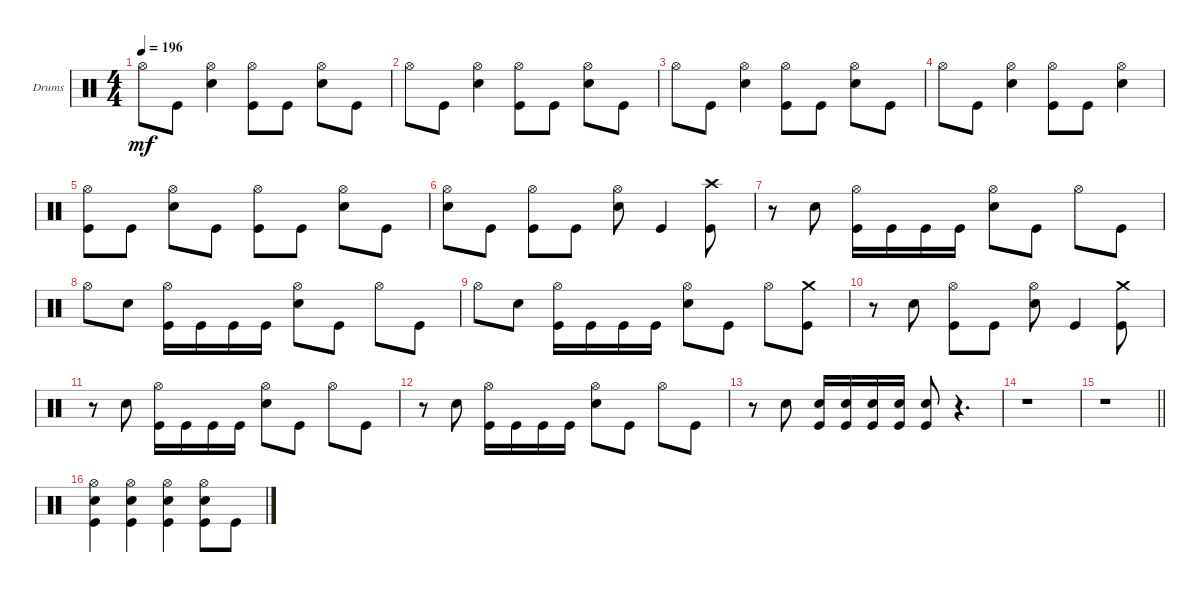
\defaultSystemsLayout 4
\bracketExtendMode groupsimilarinstruments
\firstSystemTrackNameOrientation horizontal
\otherSystemsTrackNameOrientation horizontal
\track ("Drumkit" "Drums") {instrument percussion}
\staff {score}
\articulation defaults
\ts (4 4)
\tempo 196
\clef neutral
\scale
0.333333
\ks c "Hi-Hat (open)".8{dy mf} "Kick (hit)".8
("Snare (hit) 2" "Hi-Hat (open)").4 ("Kick (hit)" "Hi-Hat (open)").8 "Kick (hit)".8 ("Snare (hit) 2" "Hi-Hat (open)").8 "Kick (hit)".8 |
\scale
0.333333 "Hi-Hat (open)".8 "Kick (hit)".8 ("Snare (hit) 2" "Hi-Hat (open)").4 ("Kick (hit)" "Hi-Hat (open)").8 "Kick (hit)".8 ("Snare (hit) 2" "Hi-Hat (open)").8 "Kick (hit)".8 |
\scale
0.333333 "Hi-Hat (open)".8 "Kick (hit)".8 ("Snare (hit) 2" "Hi-Hat (open)").4 ("Kick (hit)" "Hi-Hat (open)").8 "Kick (hit)".8 ("Snare (hit) 2" "Hi-Hat (open)").8 "Kick (hit)".8 |
\scale
0.333333 "Hi-Hat (open)".8 "Kick (hit)".8 ("Snare (hit) 2" "Hi-Hat (open)").4 ("Kick (hit)" "Hi-Hat (open)").8 "Kick (hit)".8 ("Snare (hit) 2" "Hi-Hat (open)").4 |
\scale
0.333333 ("Kick (hit)" "Hi-Hat (open)").8 "Kick (hit)".8 ("Snare (hit) 2" "Hi-Hat (open)").8 "Kick (hit)".8 ("Kick (hit)" "Hi-Hat (open)").8 "Kick (hit)".8 ("Snare (hit) 2" "Hi-Hat (open)").8 "Kick (hit)".8 |
\scale
0.333333 ("Snare (hit) 2" "Hi-Hat (open)").8 "Kick (hit)".8 ("Kick (hit)" "Hi-Hat (open)").8 "Kick (hit)".8 ("Snare (hit) 2" "Hi-Hat (open)").8 "Kick (hit)".4 ("Kick (hit)" "Crash high (hit)").8 |
\scale
0.333333 r.8 "Snare (hit) 2".8 ("Kick (hit)" "Hi-Hat (open)").16 "Kick (hit)".16 "Kick (hit)".16 "Kick (hit)".16 ("Snare (hit) 2" "Hi-Hat (open)").8 "Kick (hit)".8 "Hi-Hat (open)".8 "Kick (hit)".8 |
\scale
0.333333 "Hi-Hat (open)".8 "Snare (hit) 2".8 ("Kick (hit)" "Hi-Hat (open)").16 "Kick (hit)".16 "Kick (hit)".16 "Kick (hit)".16 ("Snare (hit) 2" "Hi-Hat (open)").8 "Kick (hit)".8 "Hi-Hat (open)".8 "Kick (hit)".8 |
\scale
0.333333 "Hi-Hat (open)".8 "Snare (hit) 2".8 ("Kick (hit)" "Hi-Hat (open)").16 "Kick (hit)".16 "Kick (hit)".16 "Kick (hit)".16 ("Snare (hit) 2" "Hi-Hat (open)").8 "Kick (hit)".8 "Hi-Hat (open)".8 ("Kick (hit)" "Crash medium (hit)").8 |
\scale
0.333333 r.8 "Snare (hit) 2".8 ("Kick (hit)" "Hi-Hat (open)").8 "Kick (hit)".8 ("Snare (hit) 2" "Hi-Hat (open)").8 "Kick (hit)".4 ("Kick (hit)" "Crash medium (hit)").8 |
\scale
0.333333 r.8 "Snare (hit) 2".8 ("Kick (hit)" "Hi-Hat (open)").16 "Kick (hit)".16 "Kick (hit)".16 "Kick (hit)".16 ("Snare (hit) 2" "Hi-Hat (open)").8 "Kick (hit)".8 "Hi-Hat (open)".8 "Kick (hit)".8 |
\scale
0.333333 r.8 "Snare (hit) 2".8 ("Kick (hit)" "Hi-Hat (open)").16 "Kick (hit)".16 "Kick (hit)".16 "Kick (hit)".16 ("Snare (hit) 2" "Hi-Hat (open)").8 "Kick (hit)".8 "Hi-Hat (open)".8 "Kick (hit)".8 |
\scale
0.333333 r.8 "Snare (hit) 2".8 ("Snare (hit) 2" "Kick (hit)").16 ("Snare (hit) 2" "Kick (hit)").16 ("Snare (hit) 2" "Kick (hit)").16 ("Snare (hit) 2" "Kick (hit)").16 ("Snare (hit) 2" "Kick (hit)").8 r.4{d} |
\scale
0.333333 r.1 |
\scale
0.333333
\barLineRight lightlight
r.1 |
\scale
0.333333 ("Kick (hit)" "Snare (hit) 2" "Hi-Hat (open)").4 ("Kick (hit)" "Snare (hit) 2" "Hi-Hat (open)").4 ("Kick (hit)" "Snare (hit) 2" "Hi-Hat (open)").4 ("Snare (hit) 2" "Hi-Hat (open)" "Kick (hit)").8 "Kick (hit)".8
